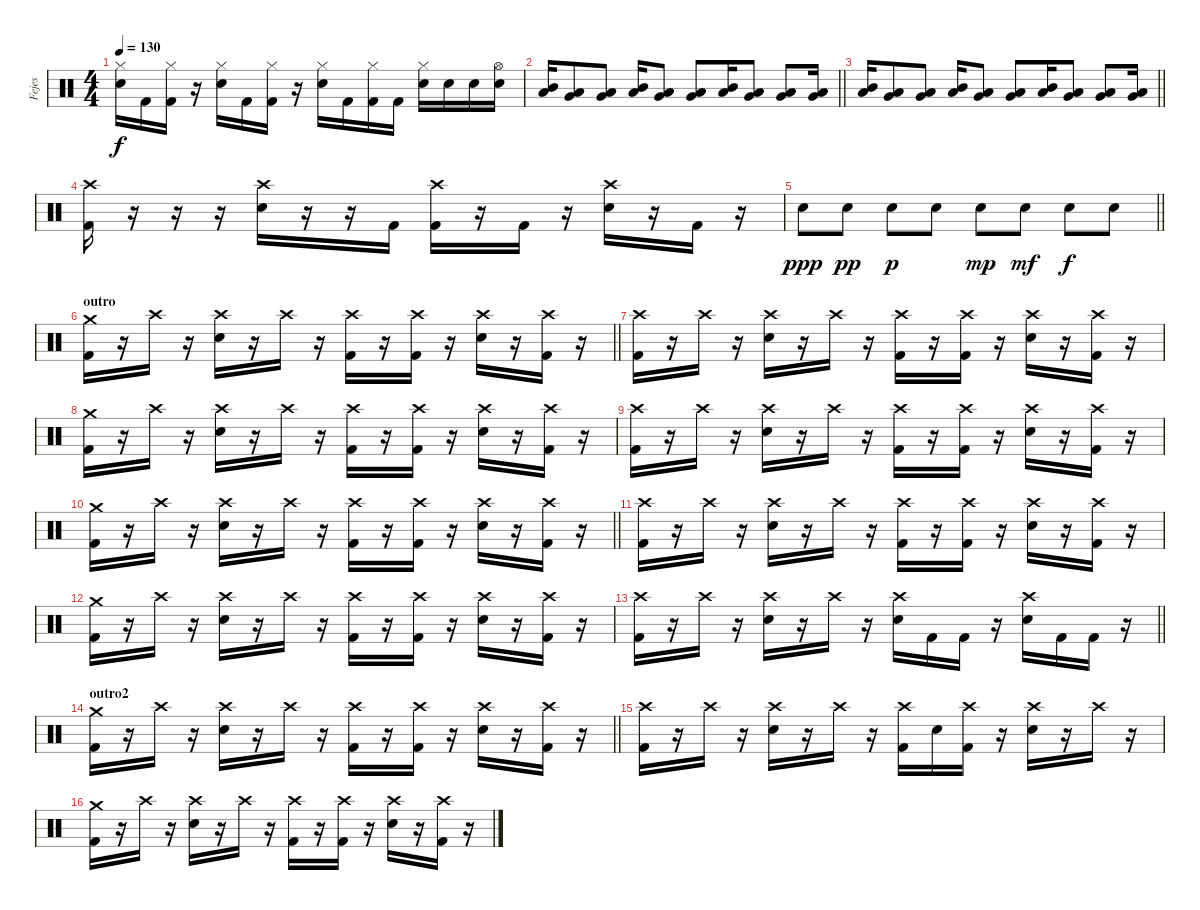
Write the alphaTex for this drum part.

\track ("Fejes" "Fejes") {instrument percussion}
\staff {score}
\articulation defaults
\ts (4 4)
\tempo 130
\clef neutral
\ks c
("Hi-Hat (closed)" "Snare (hit) 2").16{dy f} "Kick (hit) 2".16 ("Hi-Hat (closed)" "Kick (hit) 2").16 r.16 ("Hi-Hat (closed)" "Snare (hit) 2").16 "Kick (hit) 2".16 ("Hi-Hat (closed)" "Kick (hit) 2").16 r.16 ("Hi-Hat (closed)" "Snare (hit) 2").16 "Kick (hit) 2".16 ("Hi-Hat (closed)" "Kick (hit) 2").16 "Kick (hit) 2".16 ("Hi-Hat (closed)" "Snare (hit) 2").16 "Snare (hit) 2".16 "Snare (hit) 2".16 ("Hi-Hat (open)" "Snare (hit) 2").16 |
\barLineRight lightlight
("Mid Tom (hit)" "Low Tom (hit)").16 ("Low Tom (hit)" "Very Low Tom (hit)").8 ("Very Low Tom (hit)" "Low Floor Tom (hit)").8 ("Mid Tom (hit)" "Low Tom (hit)").16 ("Low Tom (hit)" "Very Low Tom (hit)").8 ("Very Low Tom (hit)" "Low Floor Tom (hit)").8 ("Mid Tom (hit)" "Low Tom (hit)").16 ("Low Tom (hit)" "Very Low Tom (hit)").8 ("Very Low Tom (hit)" "Low Floor Tom (hit)").8 ("Very Low Tom (hit)" "Low Floor Tom (hit)").16 |
\barLineRight lightlight
("Mid Tom (hit)" "Low Tom (hit)").16 ("Low Tom (hit)" "Very Low Tom (hit)").8 ("Very Low Tom (hit)" "Low Floor Tom (hit)").8 ("Mid Tom (hit)" "Low Tom (hit)").16 ("Low Tom (hit)" "Very Low Tom (hit)").8 ("Very Low Tom (hit)" "Low Floor Tom (hit)").8 ("Mid Tom (hit)" "Low Tom (hit)").16 ("Low Tom (hit)" "Very Low Tom (hit)").8 ("Very Low Tom (hit)" "Low Floor Tom (hit)").8 ("Very Low Tom (hit)" "Low Floor Tom (hit)").16 |
("Crash high (hit)" "Kick (hit) 2").16 r.16 r.16 r.16 ("Crash high (hit)" "Snare (hit) 2").16 r.16 r.16 "Kick (hit) 2".16 ("Crash high (hit)" "Kick (hit) 2").16 r.16 "Kick (hit) 2".16 r.16 ("Crash high (hit)" "Snare (hit) 2").16 r.16 "Kick (hit) 2".16 r.16 |
\barLineRight lightlight "Snare (hit) 2".8{dy ppp} "Snare (hit) 2".8{dy pp} "Snare (hit) 2".8{dy p} "Snare (hit) 2".8 "Snare (hit) 2".8{dy mp} "Snare (hit) 2".8{dy mf} "Snare (hit) 2".8{dy f} "Snare (hit) 2".8
|
\section ("" "outro")
\barLineRight lightlight
("Crash medium (hit)" "Kick (hit) 2").16 r.16 "Crash high (hit)".16 r.16 ("Crash high (hit)" "Snare (hit) 2").16 r.16 "Crash high (hit)".16 r.16 ("Crash high (hit)" "Kick (hit) 2").16 r.16 ("Crash high (hit)" "Kick (hit) 2").16 r.16 ("Crash high (hit)" "Snare (hit) 2").16 r.16 ("Crash high (hit)" "Kick (hit) 2").16 r.16 |
("Crash high (hit)" "Kick (hit) 2").16 r.16 "Crash high (hit)".16 r.16 ("Crash high (hit)" "Snare (hit) 2").16 r.16 "Crash high (hit)".16 r.16 ("Crash high (hit)" "Kick (hit) 2").16 r.16 ("Crash high (hit)" "Kick (hit) 2").16 r.16 ("Crash high (hit)" "Snare (hit) 2").16 r.16 ("Crash high (hit)" "Kick (hit) 2").16 r.16 |
("Crash medium (hit)" "Kick (hit) 2").16 r.16 "Crash high (hit)".16 r.16 ("Crash high (hit)" "Snare (hit) 2").16 r.16 "Crash high (hit)".16 r.16 ("Crash high (hit)" "Kick (hit) 2").16 r.16 ("Crash high (hit)" "Kick (hit) 2").16 r.16 ("Crash high (hit)" "Snare (hit) 2").16 r.16 ("Crash high (hit)" "Kick (hit) 2").16 r.16 |
("Crash high (hit)" "Kick (hit) 2").16 r.16 "Crash high (hit)".16 r.16 ("Crash high (hit)" "Snare (hit) 2").16 r.16 "Crash high (hit)".16 r.16 ("Crash high (hit)" "Kick (hit) 2").16 r.16 ("Crash high (hit)" "Kick (hit) 2").16 r.16 ("Crash high (hit)" "Snare (hit) 2").16 r.16 ("Crash high (hit)" "Kick (hit) 2").16 r.16 |
\barLineRight lightlight
("Crash medium (hit)" "Kick (hit) 2").16 r.16 "Crash high (hit)".16 r.16 ("Crash high (hit)" "Snare (hit) 2").16 r.16 "Crash high (hit)".16 r.16 ("Crash high (hit)" "Kick (hit) 2").16 r.16 ("Crash high (hit)" "Kick (hit) 2").16 r.16 ("Crash high (hit)" "Snare (hit) 2").16 r.16 ("Crash high (hit)" "Kick (hit) 2").16 r.16 |
("Crash high (hit)" "Kick (hit) 2").16 r.16 "Crash high (hit)".16 r.16 ("Crash high (hit)" "Snare (hit) 2").16 r.16 "Crash high (hit)".16 r.16 ("Crash high (hit)" "Kick (hit) 2").16 r.16 ("Crash high (hit)" "Kick (hit) 2").16 r.16 ("Crash high (hit)" "Snare (hit) 2").16 r.16 ("Crash high (hit)" "Kick (hit) 2").16 r.16 |
("Crash medium (hit)" "Kick (hit) 2").16 r.16 "Crash high (hit)".16 r.16 ("Crash high (hit)" "Snare (hit) 2").16 r.16 "Crash high (hit)".16 r.16 ("Crash high (hit)" "Kick (hit) 2").16 r.16 ("Crash high (hit)" "Kick (hit) 2").16 r.16 ("Crash high (hit)" "Snare (hit) 2").16 r.16 ("Crash high (hit)" "Kick (hit) 2").16 r.16 |
\barLineRight lightlight
("Crash high (hit)" "Kick (hit) 2").16 r.16 "Crash high (hit)".16 r.16 ("Crash high (hit)" "Snare (hit) 2").16 r.16 "Crash high (hit)".16 r.16 ("Crash high (hit)" "Snare (hit) 2").16 "Kick (hit) 2".16 "Kick (hit) 2".16 r.16 ("Crash high (hit)" "Snare (hit) 2").16 "Kick (hit) 2".16 "Kick (hit) 2".16 r.16 |
\section ("" "outro2")
\barLineRight lightlight
("Crash medium (hit)" "Kick (hit) 2").16 r.16 "Crash high (hit)".16 r.16 ("Crash high (hit)" "Snare (hit) 2").16 r.16 "Crash high (hit)".16 r.16 ("Crash high (hit)" "Kick (hit) 2").16 r.16 ("Crash high (hit)" "Kick (hit) 2").16 r.16 ("Crash high (hit)" "Snare (hit) 2").16 r.16 ("Crash high (hit)" "Kick (hit) 2").16 r.16 |
("Crash high (hit)" "Kick (hit) 2").16 r.16 "Crash high (hit)".16 r.16 ("Crash high (hit)" "Snare (hit) 2").16 r.16 "Crash high (hit)".16 r.16 ("Crash high (hit)" "Kick (hit) 2").16 "Snare (hit) 2".16 ("Crash high (hit)" "Kick (hit) 2").16 r.16 ("Crash high (hit)" "Snare (hit) 2").16 r.16 "Crash high (hit)".16 r.16 |
("Crash medium (hit)" "Kick (hit) 2").16 r.16 "Crash high (hit)".16 r.16 ("Crash high (hit)" "Snare (hit) 2").16 r.16 "Crash high (hit)".16 r.16 ("Crash high (hit)" "Kick (hit) 2").16 r.16 ("Crash high (hit)" "Kick (hit) 2").16 r.16 ("Crash high (hit)" "Snare (hit) 2").16 r.16 ("Crash high (hit)" "Kick (hit) 2").16 r.16
